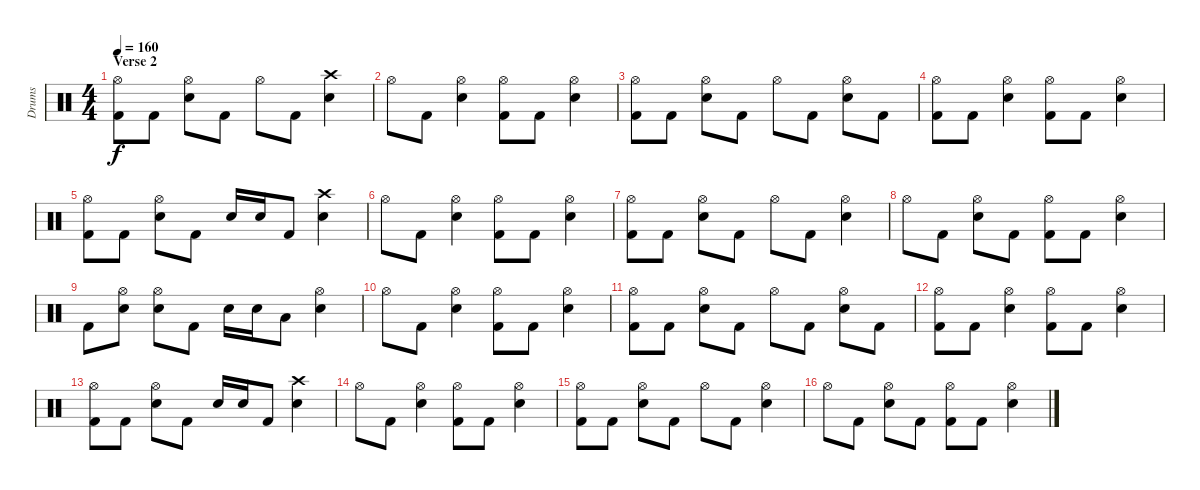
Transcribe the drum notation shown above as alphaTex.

\track ("Drums" "Drums") {instrument percussion}
\staff {score}
\articulation defaults
\ts (4 4)
\section ("" "Verse 2")
\tempo 160
\clef neutral
\ks c
("Kick (hit) 2" "Hi-Hat (open)").8{dy f} "Kick (hit) 2".8 ("Electric Snare (hit)" "Hi-Hat (open)").8 "Kick (hit) 2".8 "Hi-Hat (open)".8 "Kick (hit) 2".8 ("Electric Snare (hit)" "Crash high (hit)").4 |
"Hi-Hat (open)".8 "Kick (hit) 2".8 ("Electric Snare (hit)" "Hi-Hat (open)").4 ("Kick (hit) 2" "Hi-Hat (open)").8 "Kick (hit) 2".8 ("Electric Snare (hit)" "Hi-Hat (open)").4 |
("Kick (hit) 2" "Hi-Hat (open)").8 "Kick (hit) 2".8 ("Electric Snare (hit)" "Hi-Hat (open)").8 "Kick (hit) 2".8 "Hi-Hat (open)".8 "Kick (hit) 2".8 ("Electric Snare (hit)" "Hi-Hat (open)").8 "Kick (hit) 2".8 |
("Kick (hit) 2" "Hi-Hat (open)").8 "Kick (hit) 2".8 ("Electric Snare (hit)" "Hi-Hat (open)").4 ("Kick (hit) 2" "Hi-Hat (open)").8 "Kick (hit) 2".8 ("Electric Snare (hit)" "Hi-Hat (open)").4 |
("Kick (hit) 2" "Hi-Hat (open)").8 "Kick (hit) 2".8 ("Electric Snare (hit)" "Hi-Hat (open)").8 "Kick (hit) 2".8 "Electric Snare (hit)".16 "Electric Snare (hit)".16 "Kick (hit) 2".8 ("Electric Snare (hit)" "Crash high (hit)").4 |
"Hi-Hat (open)".8 "Kick (hit) 2".8 ("Electric Snare (hit)" "Hi-Hat (open)").4 ("Kick (hit) 2" "Hi-Hat (open)").8 "Kick (hit) 2".8 ("Electric Snare (hit)" "Hi-Hat (open)").4 |
("Kick (hit) 2" "Hi-Hat (open)").8 "Kick (hit) 2".8 ("Electric Snare (hit)" "Hi-Hat (open)").8 "Kick (hit) 2".8 "Hi-Hat (open)".8 "Kick (hit) 2".8 ("Electric Snare (hit)" "Hi-Hat (open)").4 |
"Hi-Hat (open)".8 "Kick (hit) 2".8 ("Electric Snare (hit)" "Hi-Hat (open)").8 "Kick (hit) 2".8 ("Kick (hit) 2" "Hi-Hat (open)").8 "Kick (hit) 2".8 ("Electric Snare (hit)" "Hi-Hat (open)").4 |
"Kick (hit) 2".8 ("Electric Snare (hit)" "Hi-Hat (open)").8 ("Electric Snare (hit)" "Hi-Hat (open)").8 "Kick (hit) 2".8 "Electric Snare (hit)".16 "Electric Snare (hit)".16 "Low Tom (hit)".8 ("Electric Snare (hit)" "Hi-Hat (open)").4 |
"Hi-Hat (open)".8 "Kick (hit) 2".8 ("Electric Snare (hit)" "Hi-Hat (open)").4 ("Kick (hit) 2" "Hi-Hat (open)").8 "Kick (hit) 2".8 ("Electric Snare (hit)" "Hi-Hat (open)").4 |
("Kick (hit) 2" "Hi-Hat (open)").8 "Kick (hit) 2".8 ("Electric Snare (hit)" "Hi-Hat (open)").8 "Kick (hit) 2".8 "Hi-Hat (open)".8 "Kick (hit) 2".8 ("Electric Snare (hit)" "Hi-Hat (open)").8 "Kick (hit) 2".8 |
("Kick (hit) 2" "Hi-Hat (open)").8 "Kick (hit) 2".8 ("Electric Snare (hit)" "Hi-Hat (open)").4 ("Kick (hit) 2" "Hi-Hat (open)").8 "Kick (hit) 2".8 ("Electric Snare (hit)" "Hi-Hat (open)").4 |
("Kick (hit) 2" "Hi-Hat (open)").8 "Kick (hit) 2".8 ("Electric Snare (hit)" "Hi-Hat (open)").8 "Kick (hit) 2".8 "Electric Snare (hit)".16 "Electric Snare (hit)".16 "Kick (hit) 2".8 ("Electric Snare (hit)" "Crash high (hit)").4 |
"Hi-Hat (open)".8 "Kick (hit) 2".8 ("Electric Snare (hit)" "Hi-Hat (open)").4 ("Kick (hit) 2" "Hi-Hat (open)").8 "Kick (hit) 2".8 ("Electric Snare (hit)" "Hi-Hat (open)").4 |
("Kick (hit) 2" "Hi-Hat (open)").8 "Kick (hit) 2".8 ("Electric Snare (hit)" "Hi-Hat (open)").8 "Kick (hit) 2".8 "Hi-Hat (open)".8 "Kick (hit) 2".8 ("Electric Snare (hit)" "Hi-Hat (open)").4 |
"Hi-Hat (open)".8 "Kick (hit) 2".8 ("Electric Snare (hit)" "Hi-Hat (open)").8 "Kick (hit) 2".8 ("Kick (hit) 2" "Hi-Hat (open)").8 "Kick (hit) 2".8 ("Electric Snare (hit)" "Hi-Hat (open)").4
